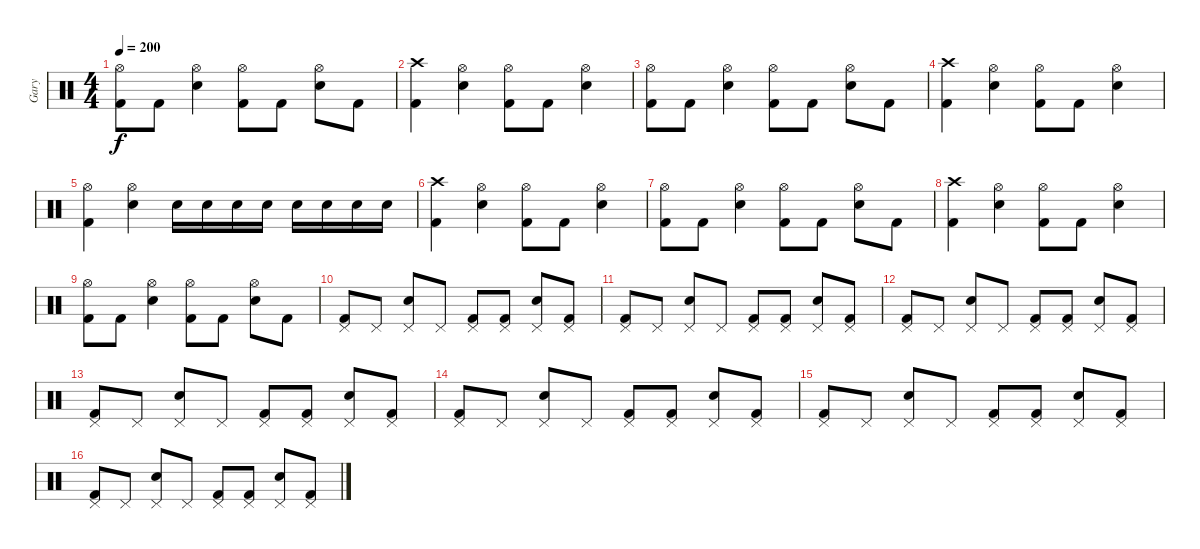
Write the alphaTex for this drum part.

\track ("Gary" "Gary") {instrument percussion}
\staff {score}
\articulation defaults
\ts (4 4)
\tempo 200
\clef neutral
\ks c
("Hi-Hat (open)" "Kick (hit) 2").8{dy f} "Kick (hit) 2".8 ("Hi-Hat (open)" "Electric Snare (hit)").4 ("Hi-Hat (open)" "Kick (hit) 2").8 "Kick (hit) 2".8 ("Hi-Hat (open)" "Electric Snare (hit)").8 "Kick (hit) 2".8 |
("Crash high (hit)" "Kick (hit) 2").4 ("Hi-Hat (open)" "Electric Snare (hit)").4 ("Hi-Hat (open)" "Kick (hit) 2").8 "Kick (hit) 2".8 ("Hi-Hat (open)" "Electric Snare (hit)").4 |
("Hi-Hat (open)" "Kick (hit) 2").8 "Kick (hit) 2".8 ("Hi-Hat (open)" "Electric Snare (hit)").4 ("Hi-Hat (open)" "Kick (hit) 2").8 "Kick (hit) 2".8 ("Hi-Hat (open)" "Electric Snare (hit)").8 "Kick (hit) 2".8 |
("Crash high (hit)" "Kick (hit) 2").4 ("Hi-Hat (open)" "Electric Snare (hit)").4 ("Hi-Hat (open)" "Kick (hit) 2").8 "Kick (hit) 2".8 ("Hi-Hat (open)" "Electric Snare (hit)").4 |
("Hi-Hat (open)" "Kick (hit) 2").4 ("Hi-Hat (open)" "Electric Snare (hit)").4 "Electric Snare (hit)".16 "Electric Snare (hit)".16 "Electric Snare (hit)".16 "Electric Snare (hit)".16 "Electric Snare (hit)".16 "Electric Snare (hit)".16 "Electric Snare (hit)".16 "Electric Snare (hit)".16 |
("Crash high (hit)" "Kick (hit) 2").4 ("Hi-Hat (open)" "Electric Snare (hit)").4 ("Hi-Hat (open)" "Kick (hit) 2").8 "Kick (hit) 2".8 ("Hi-Hat (open)" "Electric Snare (hit)").4 |
("Hi-Hat (open)" "Kick (hit) 2").8 "Kick (hit) 2".8 ("Hi-Hat (open)" "Electric Snare (hit)").4 ("Hi-Hat (open)" "Kick (hit) 2").8 "Kick (hit) 2".8 ("Hi-Hat (open)" "Electric Snare (hit)").8 "Kick (hit) 2".8 |
("Crash high (hit)" "Kick (hit) 2").4 ("Hi-Hat (open)" "Electric Snare (hit)").4 ("Hi-Hat (open)" "Kick (hit) 2").8 "Kick (hit) 2".8 ("Hi-Hat (open)" "Electric Snare (hit)").4 |
("Hi-Hat (open)" "Kick (hit) 2").8 "Kick (hit) 2".8 ("Hi-Hat (open)" "Electric Snare (hit)").4 ("Hi-Hat (open)" "Kick (hit) 2").8 "Kick (hit) 2".8 ("Hi-Hat (open)" "Electric Snare (hit)").8 "Kick (hit) 2".8 |
("Pedal Hi-Hat (hit)" "Kick (hit) 2").8 "Pedal Hi-Hat (hit)".8 ("Pedal Hi-Hat (hit)" "Electric Snare (hit)").8 "Pedal Hi-Hat (hit)".8 ("Pedal Hi-Hat (hit)" "Kick (hit) 2").8 ("Pedal Hi-Hat (hit)" "Kick (hit) 2").8 ("Pedal Hi-Hat (hit)" "Electric Snare (hit)").8 ("Pedal Hi-Hat (hit)" "Kick (hit) 2").8 |
("Pedal Hi-Hat (hit)" "Kick (hit) 2").8 "Pedal Hi-Hat (hit)".8 ("Pedal Hi-Hat (hit)" "Electric Snare (hit)").8 "Pedal Hi-Hat (hit)".8 ("Pedal Hi-Hat (hit)" "Kick (hit) 2").8 ("Pedal Hi-Hat (hit)" "Kick (hit) 2").8 ("Pedal Hi-Hat (hit)" "Electric Snare (hit)").8 ("Pedal Hi-Hat (hit)" "Kick (hit) 2").8 |
("Pedal Hi-Hat (hit)" "Kick (hit) 2").8 "Pedal Hi-Hat (hit)".8 ("Pedal Hi-Hat (hit)" "Electric Snare (hit)").8 "Pedal Hi-Hat (hit)".8 ("Pedal Hi-Hat (hit)" "Kick (hit) 2").8 ("Pedal Hi-Hat (hit)" "Kick (hit) 2").8 ("Pedal Hi-Hat (hit)" "Electric Snare (hit)").8 ("Pedal Hi-Hat (hit)" "Kick (hit) 2").8 |
("Pedal Hi-Hat (hit)" "Kick (hit) 2").8 "Pedal Hi-Hat (hit)".8 ("Pedal Hi-Hat (hit)" "Electric Snare (hit)").8 "Pedal Hi-Hat (hit)".8 ("Pedal Hi-Hat (hit)" "Kick (hit) 2").8 ("Pedal Hi-Hat (hit)" "Kick (hit) 2").8 ("Pedal Hi-Hat (hit)" "Electric Snare (hit)").8 ("Pedal Hi-Hat (hit)" "Kick (hit) 2").8 |
("Pedal Hi-Hat (hit)" "Kick (hit) 2").8 "Pedal Hi-Hat (hit)".8 ("Pedal Hi-Hat (hit)" "Electric Snare (hit)").8 "Pedal Hi-Hat (hit)".8 ("Pedal Hi-Hat (hit)" "Kick (hit) 2").8 ("Pedal Hi-Hat (hit)" "Kick (hit) 2").8 ("Pedal Hi-Hat (hit)" "Electric Snare (hit)").8 ("Pedal Hi-Hat (hit)" "Kick (hit) 2").8 |
("Pedal Hi-Hat (hit)" "Kick (hit) 2").8 "Pedal Hi-Hat (hit)".8 ("Pedal Hi-Hat (hit)" "Electric Snare (hit)").8 "Pedal Hi-Hat (hit)".8 ("Pedal Hi-Hat (hit)" "Kick (hit) 2").8 ("Pedal Hi-Hat (hit)" "Kick (hit) 2").8 ("Pedal Hi-Hat (hit)" "Electric Snare (hit)").8 ("Pedal Hi-Hat (hit)" "Kick (hit) 2").8 |
("Pedal Hi-Hat (hit)" "Kick (hit) 2").8 "Pedal Hi-Hat (hit)".8 ("Pedal Hi-Hat (hit)" "Electric Snare (hit)").8 "Pedal Hi-Hat (hit)".8 ("Pedal Hi-Hat (hit)" "Kick (hit) 2").8 ("Pedal Hi-Hat (hit)" "Kick (hit) 2").8 ("Pedal Hi-Hat (hit)" "Electric Snare (hit)").8 ("Pedal Hi-Hat (hit)" "Kick (hit) 2").8
